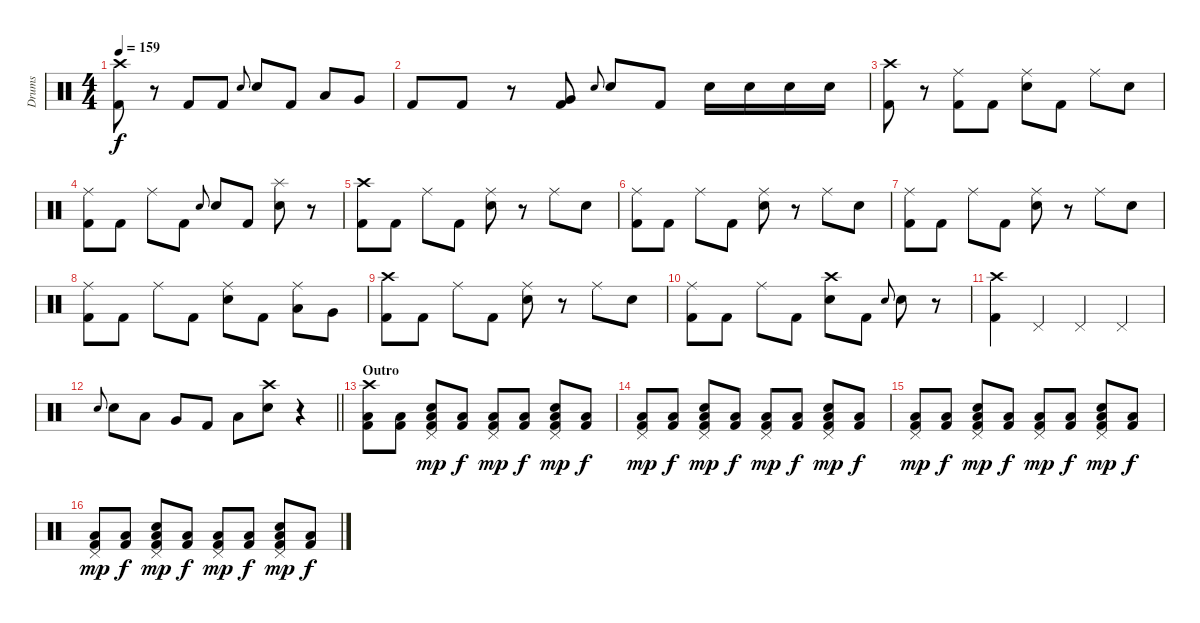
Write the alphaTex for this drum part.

\track ("Drums" "Drums") {instrument percussion}
\staff {score}
\articulation defaults
\ts (4 4)
\tempo 159
\clef neutral
\ks c
("Crash high (hit)" "Kick (hit) 2").8{dy f} r.8 "Kick (hit) 2".8 "Kick (hit) 2".8 "Electric Snare (hit)".8{gr onbeat} "Electric Snare (hit)".8 "Kick (hit) 2".8 "Low Tom (hit)".8 "Very Low Tom (hit)".8 |
"Kick (hit) 2".8 "Kick (hit) 2".8 r.8 ("Very Low Tom (hit)" "Kick (hit) 2").8 "Electric Snare (hit)".8{gr onbeat} "Electric Snare (hit)".8 "Kick (hit) 2".8 "Electric Snare (hit)".16 "Electric Snare (hit)".16 "Electric Snare (hit)".16 "Electric Snare (hit)".16 |
("Crash high (hit)" "Kick (hit) 2").8 r.8 ("Ride (middle)" "Kick (hit) 2").8 "Kick (hit) 2".8 ("Ride (middle)" "Electric Snare (hit)").8 "Kick (hit) 2".8 "Ride (middle)".8 "Electric Snare (hit)".8 |
("Ride (middle)" "Kick (hit) 2").8 "Kick (hit) 2".8 "Ride (middle)".8 "Kick (hit) 2".8 "Electric Snare (hit)".8{gr onbeat} "Electric Snare (hit)".8 "Kick (hit) 2".8 ("Splash (hit)" "Electric Snare (hit)").8 r.8 |
("Crash high (hit)" "Kick (hit) 2").8 "Kick (hit) 2".8 "Ride (middle)".8 "Kick (hit) 2".8 ("Ride (middle)" "Electric Snare (hit)").8 r.8 "Ride (middle)".8 "Electric Snare (hit)".8 |
("Ride (middle)" "Kick (hit) 2").8 "Kick (hit) 2".8 "Ride (middle)".8 "Kick (hit) 2".8 ("Ride (middle)" "Electric Snare (hit)").8 r.8 "Ride (middle)".8 "Electric Snare (hit)".8 |
("Ride (middle)" "Kick (hit) 2").8 "Kick (hit) 2".8 "Ride (middle)".8 "Kick (hit) 2".8 ("Ride (middle)" "Electric Snare (hit)").8 r.8 "Ride (middle)".8 "Electric Snare (hit)".8 |
("Ride (middle)" "Kick (hit) 2").8 "Kick (hit) 2".8 "Ride (middle)".8 "Kick (hit) 2".8 ("Ride (middle)" "Electric Snare (hit)").8 "Kick (hit) 2".8 ("Ride (middle)" "Low Tom (hit)").8 "Very Low Tom (hit)".8 |
("Crash high (hit)" "Kick (hit) 2").8 "Kick (hit) 2".8 "Ride (middle)".8 "Kick (hit) 2".8 ("Ride (middle)" "Electric Snare (hit)").8 r.8 "Ride (middle)".8 "Electric Snare (hit)".8 |
("Ride (middle)" "Kick (hit) 2").8 "Kick (hit) 2".8 "Ride (middle)".8 "Kick (hit) 2".8 ("Crash high (hit)" "Electric Snare (hit)").8 "Kick (hit) 2".8 "Electric Snare (hit)".8{gr onbeat} "Electric Snare (hit)".8 r.8 |
("Crash high (hit)" "Kick (hit) 2").4 "Pedal Hi-Hat (hit)".4 "Pedal Hi-Hat (hit)".4 "Pedal Hi-Hat (hit)".4 |
\barLineRight lightlight "Electric Snare (hit)".8{gr onbeat} "Electric Snare (hit)".8 "Low Tom (hit)".8 "Very Low Tom (hit)".8 "Kick (hit) 2".8 "Low Floor Tom (hit)".8
("Crash high (hit)" "Electric Snare (hit)").8 r.4 |
\section ("" "Outro")
("Crash high (hit)" "Low Floor Tom (hit)" "Kick (hit) 2").8 ("Low Floor Tom (hit)" "Kick (hit) 2").8 ("Pedal Hi-Hat (hit)" "Electric Snare (hit)" "Low Floor Tom (hit)" "Kick (hit) 2").8{dy mp} ("Low Floor Tom (hit)" "Kick (hit) 2").8{dy f} ("Pedal Hi-Hat (hit)" "Low Floor Tom (hit)" "Kick (hit) 2").8{dy mp} ("Low Floor Tom (hit)" "Kick (hit) 2").8{dy f} ("Pedal Hi-Hat (hit)" "Electric Snare (hit)" "Low Floor Tom (hit)" "Kick (hit) 2").8{dy mp} ("Low Floor Tom (hit)" "Kick (hit) 2").8{dy f} |
("Pedal Hi-Hat (hit)" "Low Floor Tom (hit)" "Kick (hit) 2").8{dy mp} ("Low Floor Tom (hit)" "Kick (hit) 2").8{dy f} ("Pedal Hi-Hat (hit)" "Electric Snare (hit)" "Low Floor Tom (hit)" "Kick (hit) 2").8{dy mp} ("Low Floor Tom (hit)" "Kick (hit) 2").8{dy f} ("Pedal Hi-Hat (hit)" "Low Floor Tom (hit)" "Kick (hit) 2").8{dy mp} ("Low Floor Tom (hit)" "Kick (hit) 2").8{dy f} ("Pedal Hi-Hat (hit)" "Electric Snare (hit)" "Low Floor Tom (hit)" "Kick (hit) 2").8{dy mp} ("Low Floor Tom (hit)" "Kick (hit) 2").8{dy f} |
("Pedal Hi-Hat (hit)" "Low Floor Tom (hit)" "Kick (hit) 2").8{dy mp} ("Low Floor Tom (hit)" "Kick (hit) 2").8{dy f} ("Pedal Hi-Hat (hit)" "Electric Snare (hit)" "Low Floor Tom (hit)" "Kick (hit) 2").8{dy mp} ("Low Floor Tom (hit)" "Kick (hit) 2").8{dy f} ("Pedal Hi-Hat (hit)" "Low Floor Tom (hit)" "Kick (hit) 2").8{dy mp} ("Low Floor Tom (hit)" "Kick (hit) 2").8{dy f} ("Pedal Hi-Hat (hit)" "Electric Snare (hit)" "Low Floor Tom (hit)" "Kick (hit) 2").8{dy mp} ("Low Floor Tom (hit)" "Kick (hit) 2").8{dy f} |
("Pedal Hi-Hat (hit)" "Low Floor Tom (hit)" "Kick (hit) 2").8{dy mp} ("Low Floor Tom (hit)" "Kick (hit) 2").8{dy f} ("Pedal Hi-Hat (hit)" "Electric Snare (hit)" "Low Floor Tom (hit)" "Kick (hit) 2").8{dy mp} ("Low Floor Tom (hit)" "Kick (hit) 2").8{dy f} ("Pedal Hi-Hat (hit)" "Low Floor Tom (hit)" "Kick (hit) 2").8{dy mp} ("Low Floor Tom (hit)" "Kick (hit) 2").8{dy f} ("Pedal Hi-Hat (hit)" "Electric Snare (hit)" "Low Floor Tom (hit)" "Kick (hit) 2").8{dy mp} ("Low Floor Tom (hit)" "Kick (hit) 2").8{dy f}
